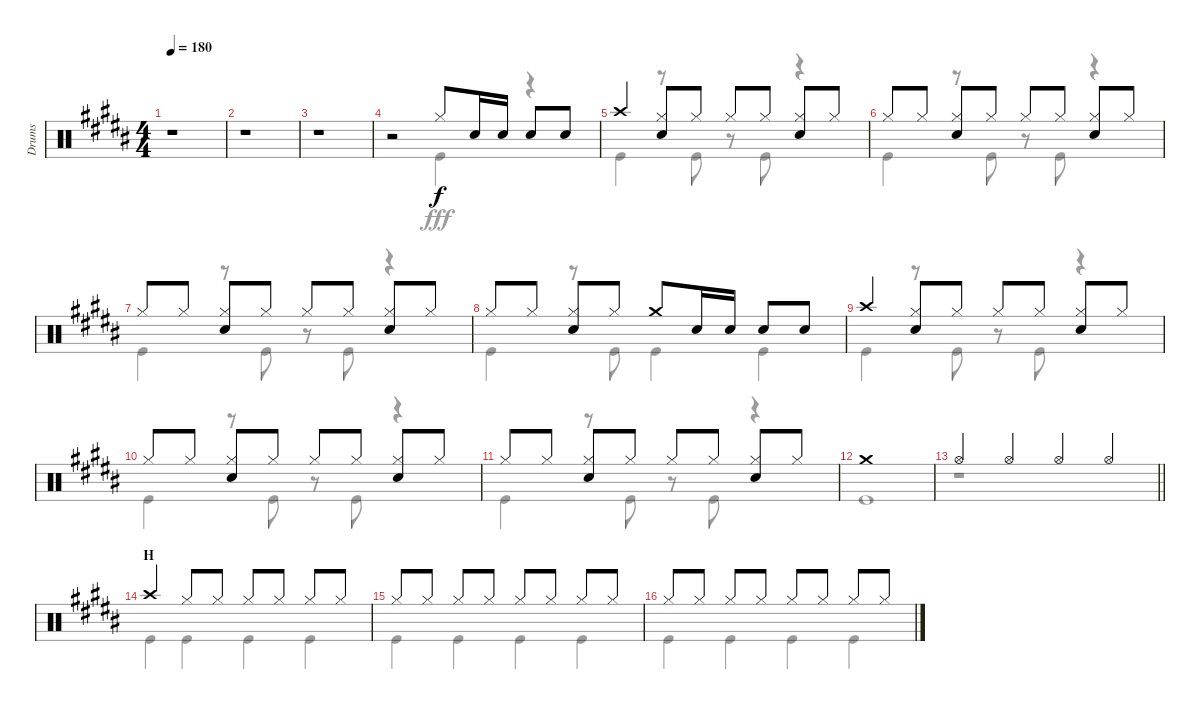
\track ("Drums" "Drums") {instrument percussion}
\staff {score}
\articulation defaults
\voice
\ts (4 4)
\tempo 180
\clef neutral
\ks b
r.1{dy f} |
r.1 |
r.1 |
r.2 "Hi-Hat (closed)".8 "Snare (hit) 2".16 "Snare (hit) 2".16 "Snare (hit) 2".8 "Snare (hit) 2".8 |
"Crash high (hit)".4 ("Hi-Hat (closed)" "Snare (hit) 2").8 "Hi-Hat (closed)".8 "Hi-Hat (closed)".8 "Hi-Hat (closed)".8 ("Hi-Hat (closed)" "Snare (hit) 2").8 "Hi-Hat (closed)".8 |
"Hi-Hat (closed)".8 "Hi-Hat (closed)".8 ("Hi-Hat (closed)" "Snare (hit) 2").8 "Hi-Hat (closed)".8 "Hi-Hat (closed)".8 "Hi-Hat (closed)".8 ("Hi-Hat (closed)" "Snare (hit) 2").8 "Hi-Hat (closed)".8 |
"Hi-Hat (closed)".8 "Hi-Hat (closed)".8 ("Hi-Hat (closed)" "Snare (hit) 2").8 "Hi-Hat (closed)".8 "Hi-Hat (closed)".8 "Hi-Hat (closed)".8 ("Hi-Hat (closed)" "Snare (hit) 2").8 "Hi-Hat (closed)".8 |
"Hi-Hat (closed)".8 "Hi-Hat (closed)".8 ("Hi-Hat (closed)" "Snare (hit) 2").8 "Hi-Hat (closed)".8 "Crash medium (hit)".8 "Snare (hit) 2".16 "Snare (hit) 2".16 "Snare (hit) 2".8 "Snare (hit) 2".8 |
"Crash high (hit)".4 ("Hi-Hat (closed)" "Snare (hit) 2").8 "Hi-Hat (closed)".8 "Hi-Hat (closed)".8 "Hi-Hat (closed)".8 ("Hi-Hat (closed)" "Snare (hit) 2").8 "Hi-Hat (closed)".8 |
"Hi-Hat (closed)".8 "Hi-Hat (closed)".8 ("Hi-Hat (closed)" "Snare (hit) 2").8 "Hi-Hat (closed)".8 "Hi-Hat (closed)".8 "Hi-Hat (closed)".8 ("Hi-Hat (closed)" "Snare (hit) 2").8 "Hi-Hat (closed)".8 |
"Hi-Hat (closed)".8 "Hi-Hat (closed)".8 ("Hi-Hat (closed)" "Snare (hit) 2").8 "Hi-Hat (closed)".8 "Hi-Hat (closed)".8 "Hi-Hat (closed)".8 ("Hi-Hat (closed)" "Snare (hit) 2").8 "Hi-Hat (closed)".8 |
"Crash medium (hit)".1 |
\barLineRight lightlight "Hi-Hat (open)".4 "Hi-Hat (open)".4 "Hi-Hat (open)".4 "Hi-Hat (open)".4
|
\section ("" "H")
"Crash high (hit)".4 "Hi-Hat (closed)".8 "Hi-Hat (closed)".8 "Hi-Hat (closed)".8 "Hi-Hat (closed)".8 "Hi-Hat (closed)".8 "Hi-Hat (closed)".8 |
"Hi-Hat (closed)".8 "Hi-Hat (closed)".8 "Hi-Hat (closed)".8 "Hi-Hat (closed)".8 "Hi-Hat (closed)".8 "Hi-Hat (closed)".8 "Hi-Hat (closed)".8 "Hi-Hat (closed)".8 |
"Hi-Hat (closed)".8 "Hi-Hat (closed)".8 "Hi-Hat (closed)".8 "Hi-Hat (closed)".8 "Hi-Hat (closed)".8 "Hi-Hat (closed)".8 "Hi-Hat (closed)".8 "Hi-Hat (closed)".8
\voice
\clef neutral
\ottava regular
\simile none
\ks b
r.1{dy fff} |
r.1 |
r.1 |
r.2 "Kick (hit)".4 r.4 |
"Kick (hit)".4 r.8 "Kick (hit)".8 r.8 "Kick (hit)".8 r.4 |
"Kick (hit)".4 r.8 "Kick (hit)".8 r.8 "Kick (hit)".8 r.4 |
"Kick (hit)".4 r.8 "Kick (hit)".8 r.8 "Kick (hit)".8 r.4 |
"Kick (hit)".4 r.8 "Kick (hit)".8 "Kick (hit)".4 "Kick (hit)".4 |
"Kick (hit)".4 r.8 "Kick (hit)".8 r.8 "Kick (hit)".8 r.4 |
"Kick (hit)".4 r.8 "Kick (hit)".8 r.8 "Kick (hit)".8 r.4 |
"Kick (hit)".4 r.8 "Kick (hit)".8 r.8 "Kick (hit)".8 r.4 |
"Kick (hit)".1 |
\barLineRight lightlight
r.1 |
"Kick (hit)".4 "Kick (hit)".4 "Kick (hit)".4 "Kick (hit)".4 |
"Kick (hit)".4 "Kick (hit)".4 "Kick (hit)".4 "Kick (hit)".4 |
"Kick (hit)".4 "Kick (hit)".4 "Kick (hit)".4 "Kick (hit)".4
